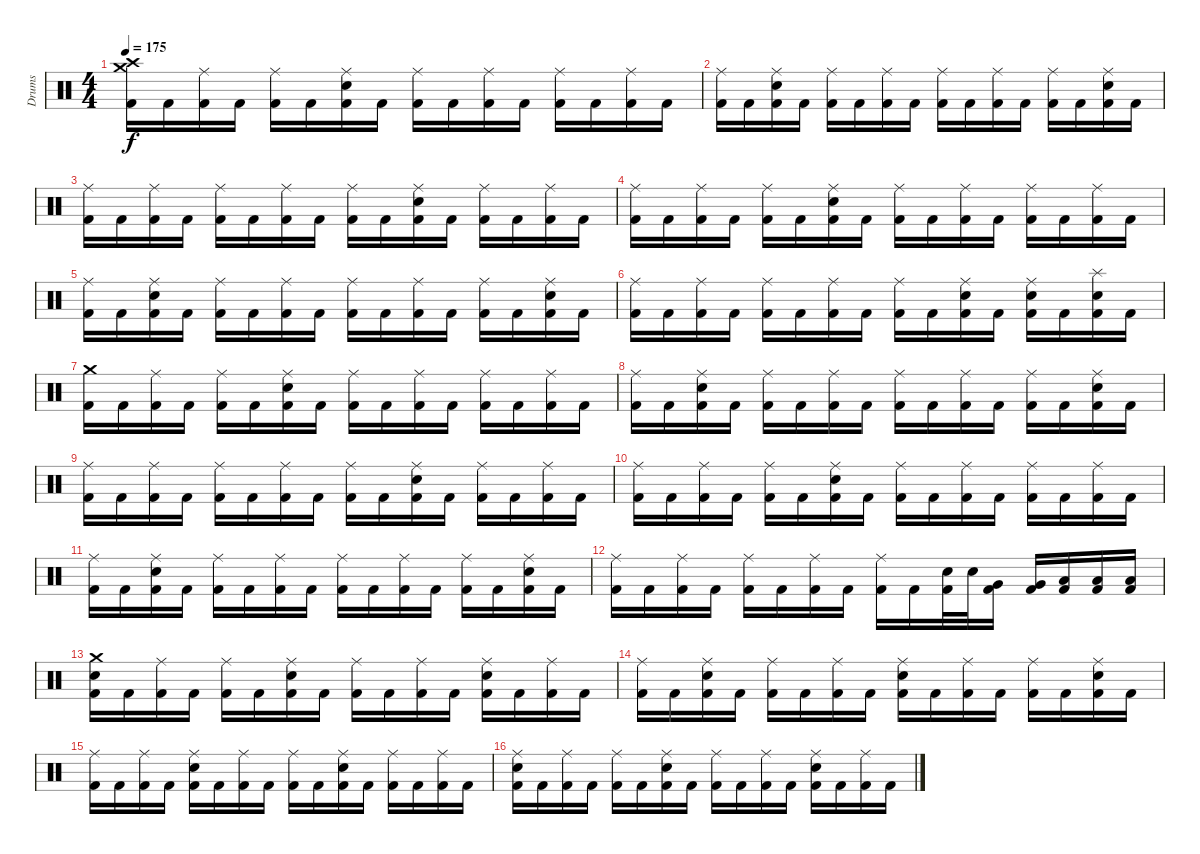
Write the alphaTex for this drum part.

\track ("Drums" "Drums") {instrument percussion}
\staff {score}
\articulation defaults
\ts (4 4)
\tempo 175
\clef neutral
\ks c
("Crash medium (hit)" "Crash high (hit)" "Kick (hit) 2").16{dy f} "Kick (hit) 2".16 ("Ride (middle)" "Kick (hit) 2").16 "Kick (hit) 2".16 ("Ride (middle)" "Kick (hit) 2").16 "Kick (hit) 2".16 ("Ride (middle)" "Electric Snare (hit)" "Kick (hit) 2").16 "Kick (hit) 2".16 ("Ride (middle)" "Kick (hit) 2").16 "Kick (hit) 2".16 ("Ride (middle)" "Kick (hit) 2").16 "Kick (hit) 2".16 ("Ride (middle)" "Kick (hit) 2").16 "Kick (hit) 2".16 ("Ride (middle)" "Kick (hit) 2").16 "Kick (hit) 2".16 |
("Ride (middle)" "Kick (hit) 2").16 "Kick (hit) 2".16 ("Ride (middle)" "Electric Snare (hit)" "Kick (hit) 2").16 "Kick (hit) 2".16 ("Ride (middle)" "Kick (hit) 2").16 "Kick (hit) 2".16 ("Ride (middle)" "Kick (hit) 2").16 "Kick (hit) 2".16 ("Ride (middle)" "Kick (hit) 2").16 "Kick (hit) 2".16 ("Ride (middle)" "Kick (hit) 2").16 "Kick (hit) 2".16 ("Ride (middle)" "Kick (hit) 2").16 "Kick (hit) 2".16 ("Ride (middle)" "Electric Snare (hit)" "Kick (hit) 2").16 "Kick (hit) 2".16 |
("Ride (middle)" "Kick (hit) 2").16 "Kick (hit) 2".16 ("Ride (middle)" "Kick (hit) 2").16 "Kick (hit) 2".16 ("Ride (middle)" "Kick (hit) 2").16 "Kick (hit) 2".16 ("Ride (middle)" "Kick (hit) 2").16 "Kick (hit) 2".16 ("Ride (middle)" "Kick (hit) 2").16 "Kick (hit) 2".16 ("Ride (middle)" "Electric Snare (hit)" "Kick (hit) 2").16 "Kick (hit) 2".16 ("Ride (middle)" "Kick (hit) 2").16 "Kick (hit) 2".16 ("Ride (middle)" "Kick (hit) 2").16 "Kick (hit) 2".16 |
("Ride (middle)" "Kick (hit) 2").16 "Kick (hit) 2".16 ("Ride (middle)" "Kick (hit) 2").16 "Kick (hit) 2".16 ("Ride (middle)" "Kick (hit) 2").16 "Kick (hit) 2".16 ("Ride (middle)" "Electric Snare (hit)" "Kick (hit) 2").16 "Kick (hit) 2".16 ("Ride (middle)" "Kick (hit) 2").16 "Kick (hit) 2".16 ("Ride (middle)" "Kick (hit) 2").16 "Kick (hit) 2".16 ("Ride (middle)" "Kick (hit) 2").16 "Kick (hit) 2".16 ("Ride (middle)" "Kick (hit) 2").16 "Kick (hit) 2".16 |
("Ride (middle)" "Kick (hit) 2").16 "Kick (hit) 2".16 ("Ride (middle)" "Electric Snare (hit)" "Kick (hit) 2").16 "Kick (hit) 2".16 ("Ride (middle)" "Kick (hit) 2").16 "Kick (hit) 2".16 ("Ride (middle)" "Kick (hit) 2").16 "Kick (hit) 2".16 ("Ride (middle)" "Kick (hit) 2").16 "Kick (hit) 2".16 ("Ride (middle)" "Kick (hit) 2").16 "Kick (hit) 2".16 ("Ride (middle)" "Kick (hit) 2").16 "Kick (hit) 2".16 ("Ride (middle)" "Electric Snare (hit)" "Kick (hit) 2").16 "Kick (hit) 2".16 |
("Ride (middle)" "Kick (hit) 2").16 "Kick (hit) 2".16 ("Ride (middle)" "Kick (hit) 2").16 "Kick (hit) 2".16 ("Ride (middle)" "Kick (hit) 2").16 "Kick (hit) 2".16 ("Ride (middle)" "Kick (hit) 2").16 "Kick (hit) 2".16 ("Ride (middle)" "Kick (hit) 2").16 "Kick (hit) 2".16 ("Ride (middle)" "Electric Snare (hit)" "Kick (hit) 2").16 "Kick (hit) 2".16 ("Ride (middle)" "Electric Snare (hit)" "Kick (hit) 2").16 "Kick (hit) 2".16 ("Splash (hit)" "Electric Snare (hit)" "Kick (hit) 2").16 "Kick (hit) 2".16 |
("Crash medium (hit)" "Kick (hit) 2").16 "Kick (hit) 2".16 ("Ride (middle)" "Kick (hit) 2").16 "Kick (hit) 2".16 ("Ride (middle)" "Kick (hit) 2").16 "Kick (hit) 2".16 ("Ride (middle)" "Electric Snare (hit)" "Kick (hit) 2").16 "Kick (hit) 2".16 ("Ride (middle)" "Kick (hit) 2").16 "Kick (hit) 2".16 ("Ride (middle)" "Kick (hit) 2").16 "Kick (hit) 2".16 ("Ride (middle)" "Kick (hit) 2").16 "Kick (hit) 2".16 ("Ride (middle)" "Kick (hit) 2").16 "Kick (hit) 2".16 |
("Ride (middle)" "Kick (hit) 2").16 "Kick (hit) 2".16 ("Ride (middle)" "Electric Snare (hit)" "Kick (hit) 2").16 "Kick (hit) 2".16 ("Ride (middle)" "Kick (hit) 2").16 "Kick (hit) 2".16 ("Ride (middle)" "Kick (hit) 2").16 "Kick (hit) 2".16 ("Ride (middle)" "Kick (hit) 2").16 "Kick (hit) 2".16 ("Ride (middle)" "Kick (hit) 2").16 "Kick (hit) 2".16 ("Ride (middle)" "Kick (hit) 2").16 "Kick (hit) 2".16 ("Ride (middle)" "Electric Snare (hit)" "Kick (hit) 2").16 "Kick (hit) 2".16 |
("Ride (middle)" "Kick (hit) 2").16 "Kick (hit) 2".16 ("Ride (middle)" "Kick (hit) 2").16 "Kick (hit) 2".16 ("Ride (middle)" "Kick (hit) 2").16 "Kick (hit) 2".16 ("Ride (middle)" "Kick (hit) 2").16 "Kick (hit) 2".16 ("Ride (middle)" "Kick (hit) 2").16 "Kick (hit) 2".16 ("Ride (middle)" "Electric Snare (hit)" "Kick (hit) 2").16 "Kick (hit) 2".16 ("Ride (middle)" "Kick (hit) 2").16 "Kick (hit) 2".16 ("Ride (middle)" "Kick (hit) 2").16 "Kick (hit) 2".16 |
("Ride (middle)" "Kick (hit) 2").16 "Kick (hit) 2".16 ("Ride (middle)" "Kick (hit) 2").16 "Kick (hit) 2".16 ("Ride (middle)" "Kick (hit) 2").16 "Kick (hit) 2".16 ("Ride (middle)" "Electric Snare (hit)" "Kick (hit) 2").16 "Kick (hit) 2".16 ("Ride (middle)" "Kick (hit) 2").16 "Kick (hit) 2".16 ("Ride (middle)" "Kick (hit) 2").16 "Kick (hit) 2".16 ("Ride (middle)" "Kick (hit) 2").16 "Kick (hit) 2".16 ("Ride (middle)" "Kick (hit) 2").16 "Kick (hit) 2".16 |
("Ride (middle)" "Kick (hit) 2").16 "Kick (hit) 2".16 ("Ride (middle)" "Electric Snare (hit)" "Kick (hit) 2").16 "Kick (hit) 2".16 ("Ride (middle)" "Kick (hit) 2").16 "Kick (hit) 2".16 ("Ride (middle)" "Kick (hit) 2").16 "Kick (hit) 2".16 ("Ride (middle)" "Kick (hit) 2").16 "Kick (hit) 2".16 ("Ride (middle)" "Kick (hit) 2").16 "Kick (hit) 2".16 ("Ride (middle)" "Kick (hit) 2").16 "Kick (hit) 2".16 ("Ride (middle)" "Electric Snare (hit)" "Kick (hit) 2").16 "Kick (hit) 2".16 |
("Ride (middle)" "Kick (hit) 2").16 "Kick (hit) 2".16 ("Ride (middle)" "Kick (hit) 2").16 "Kick (hit) 2".16 ("Ride (middle)" "Kick (hit) 2").16 "Kick (hit) 2".16 ("Ride (middle)" "Kick (hit) 2").16 "Kick (hit) 2".16 ("Ride (middle)" "Kick (hit) 2").16 "Kick (hit) 2".16 ("Electric Snare (hit)" "Kick (hit) 2").32 "Electric Snare (hit)".32 ("Very Low Tom (hit)" "Kick (hit) 2").16 ("Very Low Tom (hit)" "Kick (hit) 2").16 ("Low Floor Tom (hit)" "Kick (hit) 2").16 ("Low Floor Tom (hit)" "Kick (hit) 2").16 ("Low Floor Tom (hit)" "Kick (hit) 2").16 |
("Crash medium (hit)" "Electric Snare (hit)" "Kick (hit) 2").16 "Kick (hit) 2".16 ("Ride (middle)" "Kick (hit) 2").16 "Kick (hit) 2".16 ("Ride (middle)" "Kick (hit) 2").16 "Kick (hit) 2".16 ("Ride (middle)" "Electric Snare (hit)" "Kick (hit) 2").16 "Kick (hit) 2".16 ("Ride (middle)" "Kick (hit) 2").16 "Kick (hit) 2".16 ("Ride (middle)" "Kick (hit) 2").16 "Kick (hit) 2".16 ("Ride (middle)" "Electric Snare (hit)" "Kick (hit) 2").16 "Kick (hit) 2".16 ("Ride (middle)" "Kick (hit) 2").16 "Kick (hit) 2".16 |
("Ride (middle)" "Kick (hit) 2").16 "Kick (hit) 2".16 ("Ride (middle)" "Electric Snare (hit)" "Kick (hit) 2").16 "Kick (hit) 2".16 ("Ride (middle)" "Kick (hit) 2").16 "Kick (hit) 2".16 ("Ride (middle)" "Kick (hit) 2").16 "Kick (hit) 2".16 ("Ride (middle)" "Electric Snare (hit)" "Kick (hit) 2").16 "Kick (hit) 2".16 ("Ride (middle)" "Kick (hit) 2").16 "Kick (hit) 2".16 ("Ride (middle)" "Kick (hit) 2").16 "Kick (hit) 2".16 ("Ride (middle)" "Electric Snare (hit)" "Kick (hit) 2").16 "Kick (hit) 2".16 |
("Ride (middle)" "Kick (hit) 2").16 "Kick (hit) 2".16 ("Ride (middle)" "Kick (hit) 2").16 "Kick (hit) 2".16 ("Ride (middle)" "Electric Snare (hit)" "Kick (hit) 2").16 "Kick (hit) 2".16 ("Ride (middle)" "Kick (hit) 2").16 "Kick (hit) 2".16 ("Ride (middle)" "Kick (hit) 2").16 "Kick (hit) 2".16 ("Ride (middle)" "Electric Snare (hit)" "Kick (hit) 2").16 "Kick (hit) 2".16 ("Ride (middle)" "Kick (hit) 2").16 "Kick (hit) 2".16 ("Ride (middle)" "Kick (hit) 2").16 "Kick (hit) 2".16 |
("Ride (middle)" "Electric Snare (hit)" "Kick (hit) 2").16 "Kick (hit) 2".16 ("Ride (middle)" "Kick (hit) 2").16 "Kick (hit) 2".16 ("Ride (middle)" "Kick (hit) 2").16 "Kick (hit) 2".16 ("Ride (middle)" "Electric Snare (hit)" "Kick (hit) 2").16 "Kick (hit) 2".16 ("Ride (middle)" "Kick (hit) 2").16 "Kick (hit) 2".16 ("Ride (middle)" "Kick (hit) 2").16 "Kick (hit) 2".16 ("Ride (middle)" "Electric Snare (hit)" "Kick (hit) 2").16 "Kick (hit) 2".16 ("Ride (middle)" "Kick (hit) 2").16 "Kick (hit) 2".16
